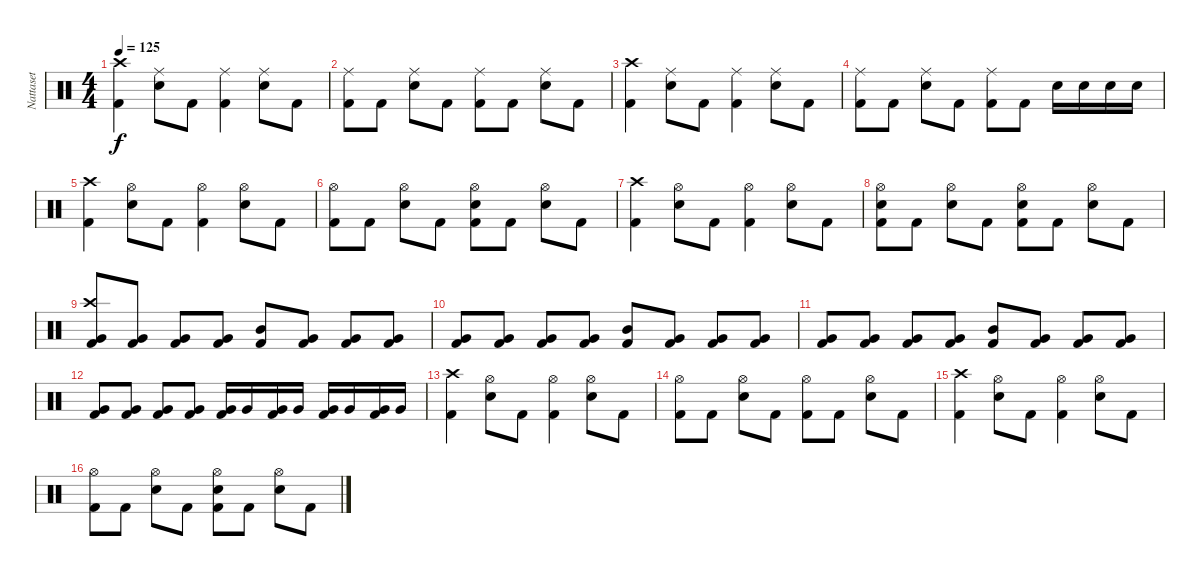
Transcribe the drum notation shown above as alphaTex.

\track ("Nattaset" "Nattaset") {instrument percussion}
\staff {score}
\articulation defaults
\ts (4 4)
\tempo 125
\clef neutral
\ks c
("Kick (hit) 2" "Crash high (hit)").4{dy f} ("Snare (hit) 2" "Ride (middle)").8 "Kick (hit) 2".8 ("Kick (hit) 2" "Ride (middle)").4 ("Snare (hit) 2" "Ride (middle)").8 "Kick (hit) 2".8 |
("Kick (hit) 2" "Ride (middle)").8 "Kick (hit) 2".8 ("Snare (hit) 2" "Ride (middle)").8 "Kick (hit) 2".8 ("Kick (hit) 2" "Ride (middle)").8 "Kick (hit) 2".8 ("Snare (hit) 2" "Ride (middle)").8 "Kick (hit) 2".8 |
("Kick (hit) 2" "Crash high (hit)").4 ("Snare (hit) 2" "Ride (middle)").8 "Kick (hit) 2".8 ("Kick (hit) 2" "Ride (middle)").4 ("Snare (hit) 2" "Ride (middle)").8 "Kick (hit) 2".8 |
("Kick (hit) 2" "Ride (middle)").8 "Kick (hit) 2".8 ("Snare (hit) 2" "Ride (middle)").8 "Kick (hit) 2".8 ("Kick (hit) 2" "Ride (middle)").8 "Kick (hit) 2".8 "Snare (hit) 2".16 "Snare (hit) 2".16 "Snare (hit) 2".16 "Snare (hit) 2".16 |
("Kick (hit) 2" "Crash high (hit)").4 ("Snare (hit) 2" "Hi-Hat (open)").8 "Kick (hit) 2".8 ("Kick (hit) 2" "Hi-Hat (open)").4 ("Snare (hit) 2" "Hi-Hat (open)").8 "Kick (hit) 2".8 |
("Kick (hit) 2" "Hi-Hat (open)").8 "Kick (hit) 2".8 ("Snare (hit) 2" "Hi-Hat (open)").8 "Kick (hit) 2".8 ("Kick (hit) 2" "Snare (hit) 2" "Hi-Hat (open)").8 "Kick (hit) 2".8 ("Snare (hit) 2" "Hi-Hat (open)").8 "Kick (hit) 2".8 |
("Kick (hit) 2" "Crash high (hit)").4 ("Snare (hit) 2" "Hi-Hat (open)").8 "Kick (hit) 2".8 ("Kick (hit) 2" "Hi-Hat (open)").4 ("Snare (hit) 2" "Hi-Hat (open)").8 "Kick (hit) 2".8 |
("Kick (hit) 2" "Snare (hit) 2" "Hi-Hat (open)").8 "Kick (hit) 2".8 ("Snare (hit) 2" "Hi-Hat (open)").8 "Kick (hit) 2".8 ("Kick (hit) 2" "Snare (hit) 2" "Hi-Hat (open)").8 "Kick (hit) 2".8 ("Snare (hit) 2" "Hi-Hat (open)").8 "Kick (hit) 2".8 |
("Kick (hit) 2" "Very Low Tom (hit)" "Crash high (hit)").8 ("Kick (hit) 2" "Very Low Tom (hit)").8 ("Kick (hit) 2" "Very Low Tom (hit)").8 ("Kick (hit) 2" "Very Low Tom (hit)").8 ("Kick (hit) 2" "Mid Tom (hit)").8 ("Kick (hit) 2" "Very Low Tom (hit)").8 ("Kick (hit) 2" "Very Low Tom (hit)").8 ("Kick (hit) 2" "Very Low Tom (hit)").8 |
("Kick (hit) 2" "Very Low Tom (hit)").8 ("Kick (hit) 2" "Very Low Tom (hit)").8 ("Kick (hit) 2" "Very Low Tom (hit)").8 ("Kick (hit) 2" "Very Low Tom (hit)").8 ("Kick (hit) 2" "Mid Tom (hit)").8 ("Kick (hit) 2" "Very Low Tom (hit)").8 ("Kick (hit) 2" "Very Low Tom (hit)").8 ("Kick (hit) 2" "Very Low Tom (hit)").8 |
("Kick (hit) 2" "Very Low Tom (hit)").8 ("Kick (hit) 2" "Very Low Tom (hit)").8 ("Kick (hit) 2" "Very Low Tom (hit)").8 ("Kick (hit) 2" "Very Low Tom (hit)").8 ("Kick (hit) 2" "Mid Tom (hit)").8 ("Kick (hit) 2" "Very Low Tom (hit)").8 ("Kick (hit) 2" "Very Low Tom (hit)").8 ("Kick (hit) 2" "Very Low Tom (hit)").8 |
("Kick (hit) 2" "Very Low Tom (hit)").8 ("Kick (hit) 2" "Very Low Tom (hit)").8 ("Kick (hit) 2" "Very Low Tom (hit)").8 ("Kick (hit) 2" "Very Low Tom (hit)").8 ("Kick (hit) 2" "Very Low Tom (hit)").16 "Very Low Tom (hit)".16 ("Kick (hit) 2" "Very Low Tom (hit)").16 "Very Low Tom (hit)".16 ("Kick (hit) 2" "Very Low Tom (hit)").16 "Very Low Tom (hit)".16 ("Kick (hit) 2" "Very Low Tom (hit)").16 "Very Low Tom (hit)".16 |
("Kick (hit) 2" "Crash high (hit)").4 ("Snare (hit) 2" "Hi-Hat (open)").8 "Kick (hit) 2".8 ("Kick (hit) 2" "Hi-Hat (open)").4 ("Snare (hit) 2" "Hi-Hat (open)").8 "Kick (hit) 2".8 |
("Kick (hit) 2" "Hi-Hat (open)").8 "Kick (hit) 2".8 ("Snare (hit) 2" "Hi-Hat (open)").8 "Kick (hit) 2".8 ("Kick (hit) 2" "Hi-Hat (open)").8 "Kick (hit) 2".8 ("Snare (hit) 2" "Hi-Hat (open)").8 "Kick (hit) 2".8 |
("Kick (hit) 2" "Crash high (hit)").4 ("Snare (hit) 2" "Hi-Hat (open)").8 "Kick (hit) 2".8 ("Kick (hit) 2" "Hi-Hat (open)").4 ("Snare (hit) 2" "Hi-Hat (open)").8 "Kick (hit) 2".8 |
("Kick (hit) 2" "Hi-Hat (open)").8 "Kick (hit) 2".8 ("Snare (hit) 2" "Hi-Hat (open)").8 "Kick (hit) 2".8 ("Kick (hit) 2" "Snare (hit) 2" "Hi-Hat (open)").8 "Kick (hit) 2".8 ("Snare (hit) 2" "Hi-Hat (open)").8 "Kick (hit) 2".8
